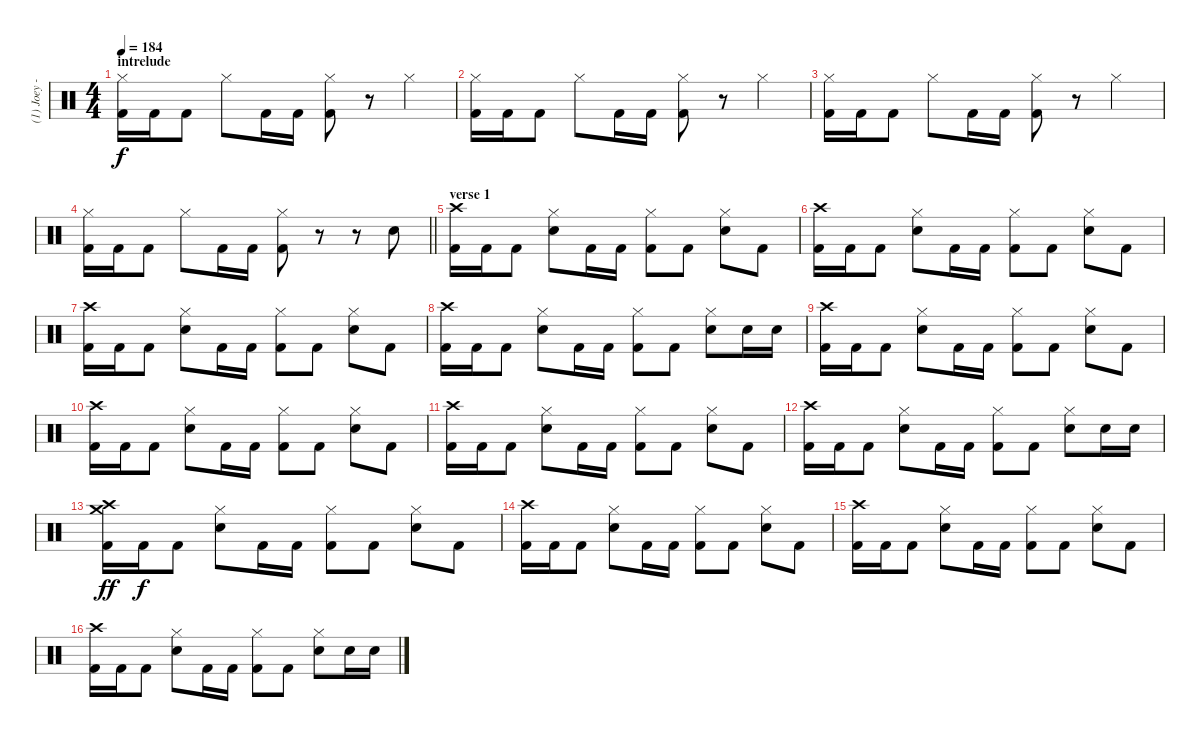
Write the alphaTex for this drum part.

\track ("(1) Joey - drums" "(1) Joey -") {instrument percussion}
\staff {score}
\articulation defaults
\ts (4 4)
\section ("" "intrelude")
\tempo 184
\clef neutral
\ks c
("Hi-Hat (closed)" "Kick (hit) 2").16{dy f} "Kick (hit) 2".16 "Kick (hit) 2".8 "Hi-Hat (closed)".8 "Kick (hit) 2".16 "Kick (hit) 2".16 ("Hi-Hat (closed)" "Kick (hit) 2").8 r.8 "Hi-Hat (closed)".4 |
("Hi-Hat (closed)" "Kick (hit) 2").16 "Kick (hit) 2".16 "Kick (hit) 2".8 "Hi-Hat (closed)".8 "Kick (hit) 2".16 "Kick (hit) 2".16 ("Hi-Hat (closed)" "Kick (hit) 2").8 r.8 "Hi-Hat (closed)".4 |
("Hi-Hat (closed)" "Kick (hit) 2").16 "Kick (hit) 2".16 "Kick (hit) 2".8 "Hi-Hat (closed)".8 "Kick (hit) 2".16 "Kick (hit) 2".16 ("Hi-Hat (closed)" "Kick (hit) 2").8 r.8 "Hi-Hat (closed)".4 |
\barLineRight lightlight
("Hi-Hat (closed)" "Kick (hit) 2").16 "Kick (hit) 2".16 "Kick (hit) 2".8 "Hi-Hat (closed)".8 "Kick (hit) 2".16 "Kick (hit) 2".16 ("Hi-Hat (closed)" "Kick (hit) 2").8 r.8 r.8 "Electric Snare (hit)".8 |
\section ("" "verse 1")
("Crash high (hit)" "Kick (hit) 2").16 "Kick (hit) 2".16 "Kick (hit) 2".8 ("Hi-Hat (closed)" "Electric Snare (hit)").8 "Kick (hit) 2".16 "Kick (hit) 2".16 ("Hi-Hat (closed)" "Kick (hit) 2").8 "Kick (hit) 2".8 ("Hi-Hat (closed)" "Electric Snare (hit)").8 "Kick (hit) 2".8 |
("Crash high (hit)" "Kick (hit) 2").16 "Kick (hit) 2".16 "Kick (hit) 2".8 ("Hi-Hat (closed)" "Electric Snare (hit)").8 "Kick (hit) 2".16 "Kick (hit) 2".16 ("Hi-Hat (closed)" "Kick (hit) 2").8 "Kick (hit) 2".8 ("Hi-Hat (closed)" "Electric Snare (hit)").8 "Kick (hit) 2".8 |
("Crash high (hit)" "Kick (hit) 2").16 "Kick (hit) 2".16 "Kick (hit) 2".8 ("Hi-Hat (closed)" "Electric Snare (hit)").8 "Kick (hit) 2".16 "Kick (hit) 2".16 ("Hi-Hat (closed)" "Kick (hit) 2").8 "Kick (hit) 2".8 ("Hi-Hat (closed)" "Electric Snare (hit)").8 "Kick (hit) 2".8 |
("Crash high (hit)" "Kick (hit) 2").16 "Kick (hit) 2".16 "Kick (hit) 2".8 ("Hi-Hat (closed)" "Electric Snare (hit)").8 "Kick (hit) 2".16 "Kick (hit) 2".16 ("Hi-Hat (closed)" "Kick (hit) 2").8 "Kick (hit) 2".8 ("Hi-Hat (closed)" "Electric Snare (hit)").8 "Electric Snare (hit)".16 "Electric Snare (hit)".16 |
("Crash high (hit)" "Kick (hit) 2").16 "Kick (hit) 2".16 "Kick (hit) 2".8 ("Hi-Hat (closed)" "Electric Snare (hit)").8 "Kick (hit) 2".16 "Kick (hit) 2".16 ("Hi-Hat (closed)" "Kick (hit) 2").8 "Kick (hit) 2".8 ("Hi-Hat (closed)" "Electric Snare (hit)").8 "Kick (hit) 2".8 |
("Crash high (hit)" "Kick (hit) 2").16 "Kick (hit) 2".16 "Kick (hit) 2".8 ("Hi-Hat (closed)" "Electric Snare (hit)").8 "Kick (hit) 2".16 "Kick (hit) 2".16 ("Hi-Hat (closed)" "Kick (hit) 2").8 "Kick (hit) 2".8 ("Hi-Hat (closed)" "Electric Snare (hit)").8 "Kick (hit) 2".8 |
("Crash high (hit)" "Kick (hit) 2").16 "Kick (hit) 2".16 "Kick (hit) 2".8 ("Hi-Hat (closed)" "Electric Snare (hit)").8 "Kick (hit) 2".16 "Kick (hit) 2".16 ("Hi-Hat (closed)" "Kick (hit) 2").8 "Kick (hit) 2".8 ("Hi-Hat (closed)" "Electric Snare (hit)").8 "Kick (hit) 2".8 |
("Crash high (hit)" "Kick (hit) 2").16 "Kick (hit) 2".16 "Kick (hit) 2".8 ("Hi-Hat (closed)" "Electric Snare (hit)").8 "Kick (hit) 2".16 "Kick (hit) 2".16 ("Hi-Hat (closed)" "Kick (hit) 2").8 "Kick (hit) 2".8 ("Hi-Hat (closed)" "Electric Snare (hit)").8 "Electric Snare (hit)".16 "Electric Snare (hit)".16 |
("Crash high (hit)" "Crash medium (hit)" "Kick (hit) 2").16{dy ff} "Kick (hit) 2".16{dy f} "Kick (hit) 2".8 ("Hi-Hat (closed)" "Electric Snare (hit)").8 "Kick (hit) 2".16 "Kick (hit) 2".16 ("Hi-Hat (closed)" "Kick (hit) 2").8 "Kick (hit) 2".8 ("Hi-Hat (closed)" "Electric Snare (hit)").8 "Kick (hit) 2".8 |
("Crash high (hit)" "Kick (hit) 2").16 "Kick (hit) 2".16 "Kick (hit) 2".8 ("Hi-Hat (closed)" "Electric Snare (hit)").8 "Kick (hit) 2".16 "Kick (hit) 2".16 ("Hi-Hat (closed)" "Kick (hit) 2").8 "Kick (hit) 2".8 ("Hi-Hat (closed)" "Electric Snare (hit)").8 "Kick (hit) 2".8 |
("Crash high (hit)" "Kick (hit) 2").16 "Kick (hit) 2".16 "Kick (hit) 2".8 ("Hi-Hat (closed)" "Electric Snare (hit)").8 "Kick (hit) 2".16 "Kick (hit) 2".16 ("Hi-Hat (closed)" "Kick (hit) 2").8 "Kick (hit) 2".8 ("Hi-Hat (closed)" "Electric Snare (hit)").8 "Kick (hit) 2".8 |
("Crash high (hit)" "Kick (hit) 2").16 "Kick (hit) 2".16 "Kick (hit) 2".8 ("Hi-Hat (closed)" "Electric Snare (hit)").8 "Kick (hit) 2".16 "Kick (hit) 2".16 ("Hi-Hat (closed)" "Kick (hit) 2").8 "Kick (hit) 2".8 ("Hi-Hat (closed)" "Electric Snare (hit)").8 "Electric Snare (hit)".16 "Electric Snare (hit)".16
